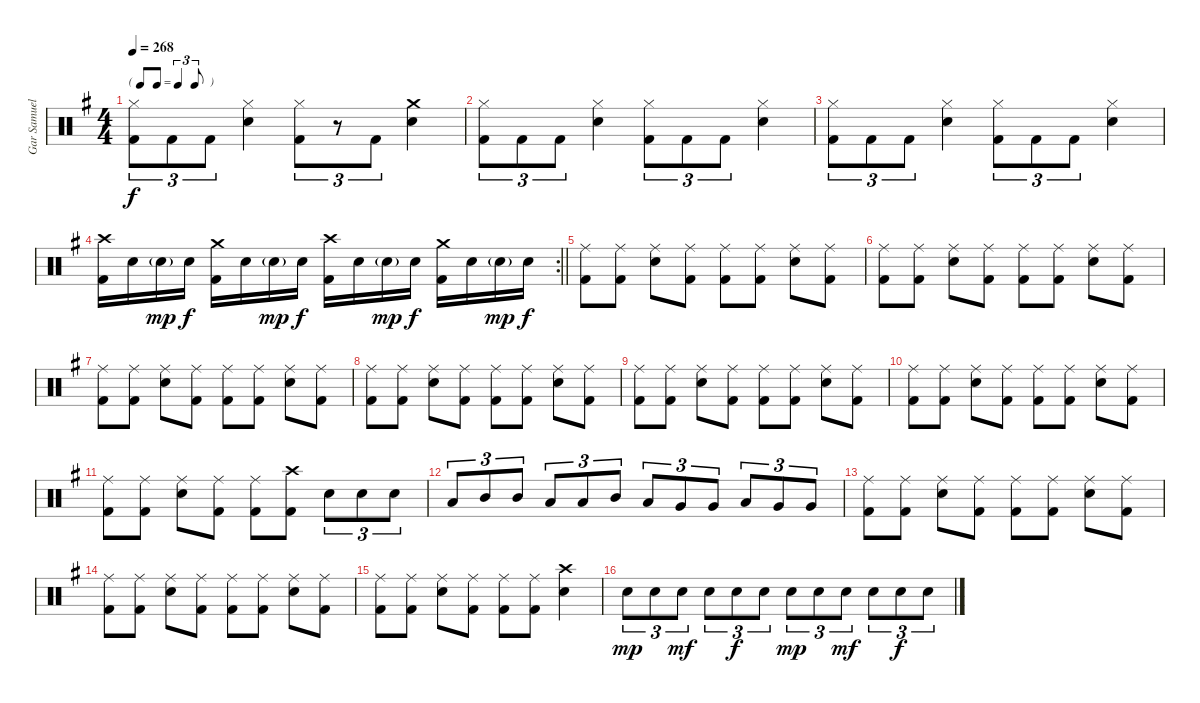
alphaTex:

\track ("Gar Samuelson" "Gar Samuel") {instrument percussion}
\staff {score}
\articulation defaults
\ts (4 4)
\tf triplet8th
\tempo 268
\clef neutral
\ks g
("Hi-Hat (closed)" "Kick (hit) 2").8{tu (3 2) dy f} "Kick (hit) 2".8{tu (3 2)} "Kick (hit) 2".8{tu (3 2)} ("Hi-Hat (closed)" "Snare (hit) 2").4 ("Hi-Hat (closed)" "Kick (hit) 2").8{tu (3 2)} r.8{tu (3 2)} "Kick (hit) 2".8{tu (3 2)} ("Crash medium (hit)" "Snare (hit) 2").4 |
("Hi-Hat (closed)" "Kick (hit) 2").8{tu (3 2)} "Kick (hit) 2".8{tu (3 2)} "Kick (hit) 2".8{tu (3 2)} ("Hi-Hat (closed)" "Snare (hit) 2").4 ("Hi-Hat (closed)" "Kick (hit) 2").8{tu (3 2)} "Kick (hit) 2".8{tu (3 2)} "Kick (hit) 2".8{tu (3 2)} ("Hi-Hat (closed)" "Snare (hit) 2").4 |
("Hi-Hat (closed)" "Kick (hit) 2").8{tu (3 2)} "Kick (hit) 2".8{tu (3 2)} "Kick (hit) 2".8{tu (3 2)} ("Hi-Hat (closed)" "Snare (hit) 2").4 ("Hi-Hat (closed)" "Kick (hit) 2").8{tu (3 2)} "Kick (hit) 2".8{tu (3 2)} "Kick (hit) 2".8{tu (3 2)} ("Hi-Hat (closed)" "Snare (hit) 2").4 |
\rc 2
\barLineRight lightlight
("Crash high (hit)" "Kick (hit) 2").16 "Snare (hit) 2".16 "Snare (hit) 2"{g}.16{dy mp} "Snare (hit) 2".16{dy f} ("Crash medium (hit)" "Kick (hit) 2").16 "Snare (hit) 2".16 "Snare (hit) 2"{g}.16{dy mp} "Snare (hit) 2".16{dy f} ("Crash high (hit)" "Kick (hit) 2").16 "Snare (hit) 2".16 "Snare (hit) 2"{g}.16{dy mp} "Snare (hit) 2".16{dy f} ("Crash medium (hit)" "Kick (hit) 2").16 "Snare (hit) 2".16 "Snare (hit) 2"{g}.16{dy mp} "Snare (hit) 2".16{dy f} |
("Ride (middle)" "Kick (hit) 2").8 ("Ride (middle)" "Kick (hit) 2").8 ("Ride (middle)" "Snare (hit) 2").8 ("Ride (middle)" "Kick (hit) 2").8 ("Ride (middle)" "Kick (hit) 2").8 ("Ride (middle)" "Kick (hit) 2").8 ("Ride (middle)" "Snare (hit) 2").8 ("Ride (middle)" "Kick (hit) 2").8 |
("Ride (middle)" "Kick (hit) 2").8 ("Ride (middle)" "Kick (hit) 2").8 ("Ride (middle)" "Snare (hit) 2").8 ("Ride (middle)" "Kick (hit) 2").8 ("Ride (middle)" "Kick (hit) 2").8 ("Ride (middle)" "Kick (hit) 2").8 ("Ride (middle)" "Snare (hit) 2").8 ("Ride (middle)" "Kick (hit) 2").8 |
("Ride (middle)" "Kick (hit) 2").8 ("Ride (middle)" "Kick (hit) 2").8 ("Ride (middle)" "Snare (hit) 2").8 ("Ride (middle)" "Kick (hit) 2").8 ("Ride (middle)" "Kick (hit) 2").8 ("Ride (middle)" "Kick (hit) 2").8 ("Ride (middle)" "Snare (hit) 2").8 ("Ride (middle)" "Kick (hit) 2").8 |
("Ride (middle)" "Kick (hit) 2").8 ("Ride (middle)" "Kick (hit) 2").8 ("Ride (middle)" "Snare (hit) 2").8 ("Ride (middle)" "Kick (hit) 2").8 ("Ride (middle)" "Kick (hit) 2").8 ("Ride (middle)" "Kick (hit) 2").8 ("Ride (middle)" "Snare (hit) 2").8 ("Ride (middle)" "Kick (hit) 2").8 |
("Ride (middle)" "Kick (hit) 2").8 ("Ride (middle)" "Kick (hit) 2").8 ("Ride (middle)" "Snare (hit) 2").8 ("Ride (middle)" "Kick (hit) 2").8 ("Ride (middle)" "Kick (hit) 2").8 ("Ride (middle)" "Kick (hit) 2").8 ("Ride (middle)" "Snare (hit) 2").8 ("Ride (middle)" "Kick (hit) 2").8 |
("Ride (middle)" "Kick (hit) 2").8 ("Ride (middle)" "Kick (hit) 2").8 ("Ride (middle)" "Snare (hit) 2").8 ("Ride (middle)" "Kick (hit) 2").8 ("Ride (middle)" "Kick (hit) 2").8 ("Ride (middle)" "Kick (hit) 2").8 ("Ride (middle)" "Snare (hit) 2").8 ("Ride (middle)" "Kick (hit) 2").8 |
("Ride (middle)" "Kick (hit) 2").8 ("Ride (middle)" "Kick (hit) 2").8 ("Ride (middle)" "Snare (hit) 2").8 ("Ride (middle)" "Kick (hit) 2").8 ("Ride (middle)" "Kick (hit) 2").8 ("Crash high (hit)" "Kick (hit) 2").8 "Snare (hit) 2".8{tu (3 2)} "Snare (hit) 2".8{tu (3 2)} "Snare (hit) 2".8{tu (3 2)} |
"Low Tom (hit)".8{tu (3 2)} "Mid Tom (hit)".8{tu (3 2)} "Mid Tom (hit)".8{tu (3 2)} "Low Tom (hit)".8{tu (3 2)} "Low Tom (hit)".8{tu (3 2)} "Mid Tom (hit)".8{tu (3 2)} "Low Tom (hit)".8{tu (3 2)} "Very Low Tom (hit)".8{tu (3 2)} "Very Low Tom (hit)".8{tu (3 2)} "Low Tom (hit)".8{tu (3 2)} "Very Low Tom (hit)".8{tu (3 2)} "Very Low Tom (hit)".8{tu (3 2)} |
("Ride (middle)" "Kick (hit) 2").8 ("Ride (middle)" "Kick (hit) 2").8 ("Ride (middle)" "Snare (hit) 2").8 ("Ride (middle)" "Kick (hit) 2").8 ("Ride (middle)" "Kick (hit) 2").8 ("Ride (middle)" "Kick (hit) 2").8 ("Ride (middle)" "Snare (hit) 2").8 ("Ride (middle)" "Kick (hit) 2").8 |
("Ride (middle)" "Kick (hit) 2").8 ("Ride (middle)" "Kick (hit) 2").8 ("Ride (middle)" "Snare (hit) 2").8 ("Ride (middle)" "Kick (hit) 2").8 ("Ride (middle)" "Kick (hit) 2").8 ("Ride (middle)" "Kick (hit) 2").8 ("Ride (middle)" "Snare (hit) 2").8 ("Ride (middle)" "Kick (hit) 2").8 |
("Ride (middle)" "Kick (hit) 2").8 ("Ride (middle)" "Kick (hit) 2").8 ("Ride (middle)" "Snare (hit) 2").8 ("Ride (middle)" "Kick (hit) 2").8 ("Ride (middle)" "Kick (hit) 2").8 ("Ride (middle)" "Kick (hit) 2").8 ("Crash high (hit)" "Snare (hit) 2").4 |
"Snare (hit) 2".8{tu (3 2) dy mp} "Snare (hit) 2".8{tu (3 2)} "Snare (hit) 2".8{tu (3 2) dy mf} "Snare (hit) 2".8{tu (3 2)} "Snare (hit) 2".8{tu (3 2) dy f} "Snare (hit) 2".8{tu (3 2)} "Snare (hit) 2".8{tu (3 2) dy mp} "Snare (hit) 2".8{tu (3 2)} "Snare (hit) 2".8{tu (3 2) dy mf} "Snare (hit) 2".8{tu (3 2)} "Snare (hit) 2".8{tu (3 2) dy f} "Snare (hit) 2".8{tu (3 2)}
